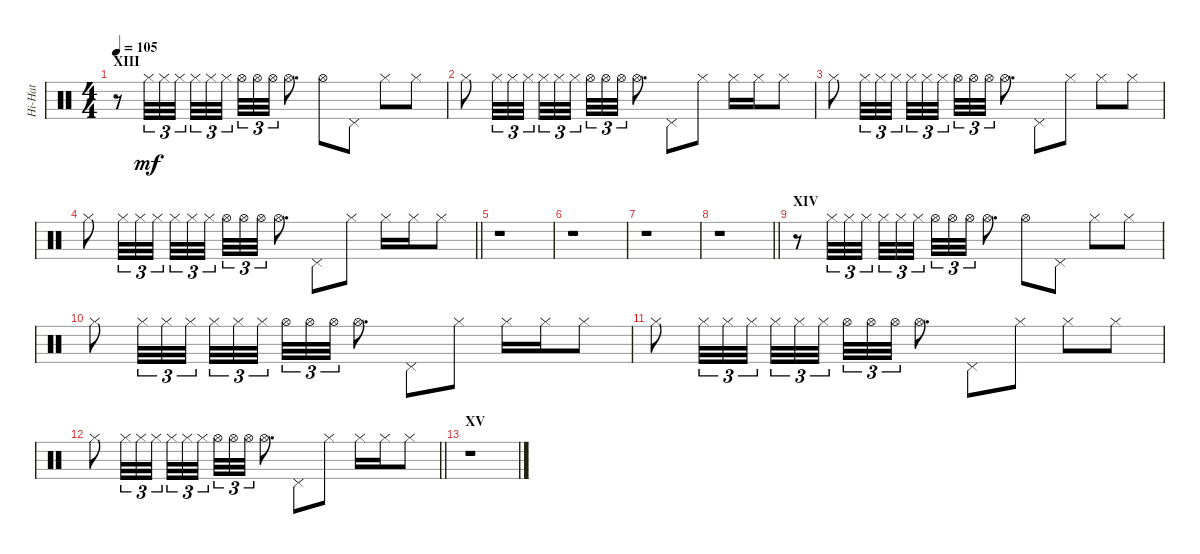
\track ("Hi-Hat" "Hi-Hat") {instrument percussion}
\staff {score}
\articulation defaults
\ts (4 4)
\section ("" "XIII")
\tempo 105
\clef neutral
\ks c
r.8{dy mf} "Hi-Hat (closed)".32{tu (3 2)} "Hi-Hat (closed)".32{tu (3 2)} "Hi-Hat (closed)".32{tu (3 2) beam splitsecondary} "Hi-Hat (closed)".32{tu (3 2)} "Hi-Hat (closed)".32{tu (3 2)} "Hi-Hat (closed)".32{tu (3 2)} "Hi-Hat (open)".32{tu (3 2)} "Hi-Hat (open)".32{tu (3 2)} "Hi-Hat (open)".32{tu (3 2)} "Hi-Hat (open)".8{d} "Hi-Hat (open)".8 "Pedal Hi-Hat (hit)".8 "Hi-Hat (closed)".8 "Hi-Hat (closed)".8 |
"Hi-Hat (closed)".8 "Hi-Hat (closed)".32{tu (3 2)} "Hi-Hat (closed)".32{tu (3 2)} "Hi-Hat (closed)".32{tu (3 2) beam splitsecondary} "Hi-Hat (closed)".32{tu (3 2)} "Hi-Hat (closed)".32{tu (3 2)} "Hi-Hat (closed)".32{tu (3 2)} "Hi-Hat (open)".32{tu (3 2)} "Hi-Hat (open)".32{tu (3 2)} "Hi-Hat (open)".32{tu (3 2)} "Hi-Hat (open)".8{d} "Pedal Hi-Hat (hit)".8 "Hi-Hat (closed)".8 "Hi-Hat (closed)".16 "Hi-Hat (closed)".16 "Hi-Hat (closed)".8 |
"Hi-Hat (closed)".8 "Hi-Hat (closed)".32{tu (3 2)} "Hi-Hat (closed)".32{tu (3 2)} "Hi-Hat (closed)".32{tu (3 2) beam splitsecondary} "Hi-Hat (closed)".32{tu (3 2)} "Hi-Hat (closed)".32{tu (3 2)} "Hi-Hat (closed)".32{tu (3 2)} "Hi-Hat (open)".32{tu (3 2)} "Hi-Hat (open)".32{tu (3 2)} "Hi-Hat (open)".32{tu (3 2)} "Hi-Hat (open)".8{d} "Pedal Hi-Hat (hit)".8 "Hi-Hat (closed)".8 "Hi-Hat (closed)".8 "Hi-Hat (closed)".8 |
\barLineRight lightlight "Hi-Hat (closed)".8 "Hi-Hat (closed)".32{tu (3 2)} "Hi-Hat (closed)".32{tu (3 2)} "Hi-Hat (closed)".32{tu (3 2) beam splitsecondary} "Hi-Hat (closed)".32{tu (3 2)} "Hi-Hat (closed)".32{tu (3 2)} "Hi-Hat (closed)".32{tu (3 2)} "Hi-Hat (open)".32{tu (3 2)} "Hi-Hat (open)".32{tu (3 2)} "Hi-Hat (open)".32{tu (3 2)} "Hi-Hat (open)".8{d} "Pedal Hi-Hat (hit)".8 "Hi-Hat (closed)".8 "Hi-Hat (closed)".16 "Hi-Hat (closed)".16 "Hi-Hat (closed)".8
|
r.1 |
r.1 |
r.1 |
\barLineRight lightlight
r.1 |
\section ("" "XIV")
r.8 "Hi-Hat (closed)".32{tu (3 2)} "Hi-Hat (closed)".32{tu (3 2)} "Hi-Hat (closed)".32{tu (3 2) beam splitsecondary} "Hi-Hat (closed)".32{tu (3 2)} "Hi-Hat (closed)".32{tu (3 2)} "Hi-Hat (closed)".32{tu (3 2)} "Hi-Hat (open)".32{tu (3 2)} "Hi-Hat (open)".32{tu (3 2)} "Hi-Hat (open)".32{tu (3 2)} "Hi-Hat (open)".8{d} "Hi-Hat (open)".8 "Pedal Hi-Hat (hit)".8 "Hi-Hat (closed)".8 "Hi-Hat (closed)".8 |
"Hi-Hat (closed)".8 "Hi-Hat (closed)".32{tu (3 2)} "Hi-Hat (closed)".32{tu (3 2)} "Hi-Hat (closed)".32{tu (3 2) beam splitsecondary} "Hi-Hat (closed)".32{tu (3 2)} "Hi-Hat (closed)".32{tu (3 2)} "Hi-Hat (closed)".32{tu (3 2)} "Hi-Hat (open)".32{tu (3 2)} "Hi-Hat (open)".32{tu (3 2)} "Hi-Hat (open)".32{tu (3 2)} "Hi-Hat (open)".8{d} "Pedal Hi-Hat (hit)".8 "Hi-Hat (closed)".8 "Hi-Hat (closed)".16 "Hi-Hat (closed)".16 "Hi-Hat (closed)".8 |
"Hi-Hat (closed)".8 "Hi-Hat (closed)".32{tu (3 2)} "Hi-Hat (closed)".32{tu (3 2)} "Hi-Hat (closed)".32{tu (3 2) beam splitsecondary} "Hi-Hat (closed)".32{tu (3 2)} "Hi-Hat (closed)".32{tu (3 2)} "Hi-Hat (closed)".32{tu (3 2)} "Hi-Hat (open)".32{tu (3 2)} "Hi-Hat (open)".32{tu (3 2)} "Hi-Hat (open)".32{tu (3 2)} "Hi-Hat (open)".8{d} "Pedal Hi-Hat (hit)".8 "Hi-Hat (closed)".8 "Hi-Hat (closed)".8 "Hi-Hat (closed)".8 |
\barLineRight lightlight "Hi-Hat (closed)".8 "Hi-Hat (closed)".32{tu (3 2)} "Hi-Hat (closed)".32{tu (3 2)} "Hi-Hat (closed)".32{tu (3 2) beam splitsecondary} "Hi-Hat (closed)".32{tu (3 2)} "Hi-Hat (closed)".32{tu (3 2)} "Hi-Hat (closed)".32{tu (3 2)} "Hi-Hat (open)".32{tu (3 2)} "Hi-Hat (open)".32{tu (3 2)} "Hi-Hat (open)".32{tu (3 2)} "Hi-Hat (open)".8{d} "Pedal Hi-Hat (hit)".8 "Hi-Hat (closed)".8 "Hi-Hat (closed)".16 "Hi-Hat (closed)".16 "Hi-Hat (closed)".8
|
\section ("" "XV")
r.1
